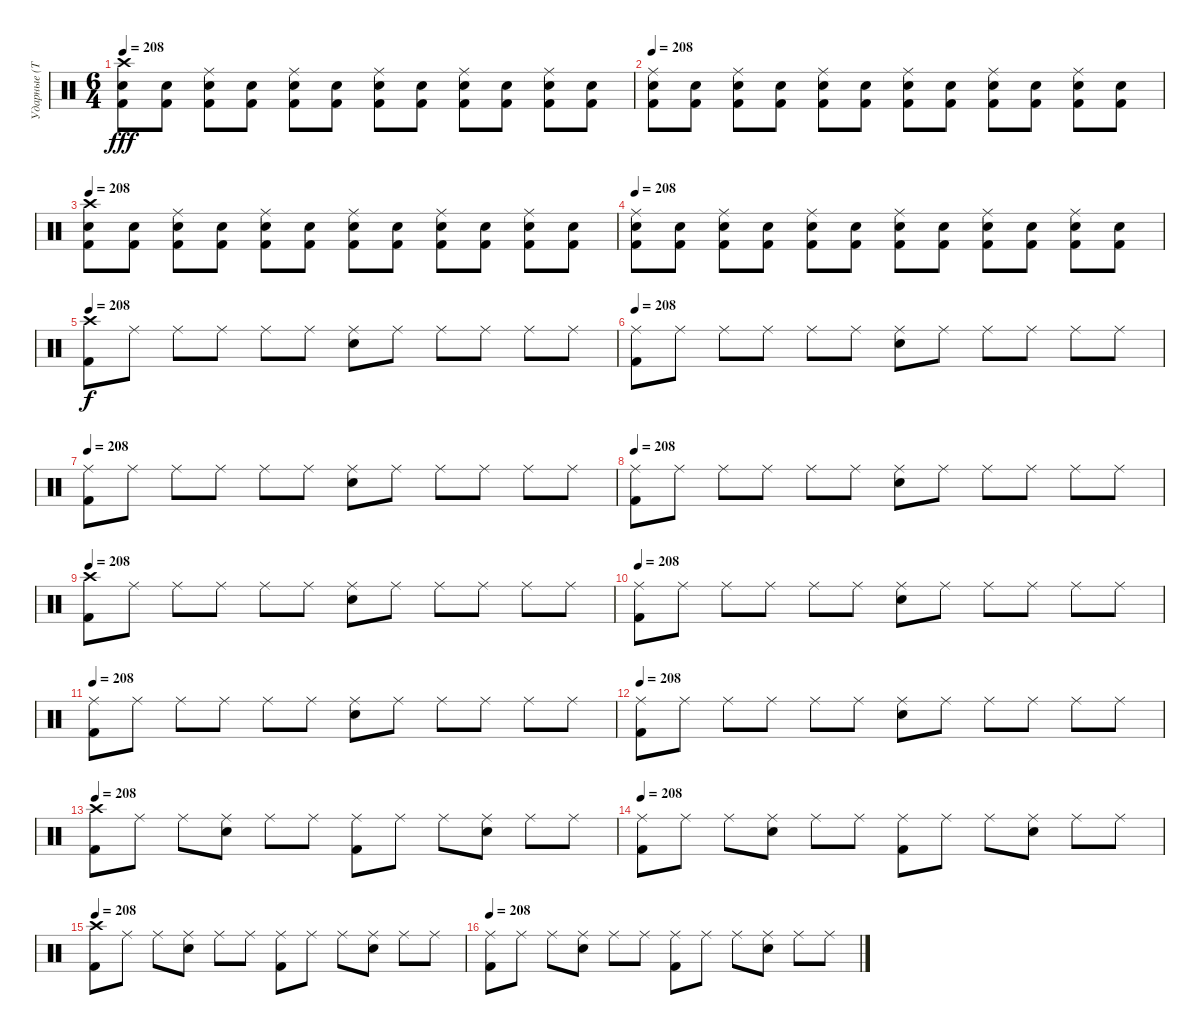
\track ("Ударные (Тьодальв)" "Ударные (Т") {instrument percussion}
\staff {score}
\articulation defaults
\ts (6 4)
\tempo 208
\clef neutral
\ks c
("Kick (hit) 2" "Snare (hit) 2" "Crash high (hit)").8{dy fff} ("Kick (hit) 2" "Snare (hit) 2").8 ("Kick (hit) 2" "Snare (hit) 2" "Ride (middle)").8 ("Kick (hit) 2" "Snare (hit) 2").8 ("Kick (hit) 2" "Snare (hit) 2" "Ride (middle)").8 ("Kick (hit) 2" "Snare (hit) 2").8 ("Kick (hit) 2" "Snare (hit) 2" "Ride (middle)").8 ("Kick (hit) 2" "Snare (hit) 2").8 ("Kick (hit) 2" "Snare (hit) 2" "Ride (middle)").8 ("Kick (hit) 2" "Snare (hit) 2").8 ("Kick (hit) 2" "Snare (hit) 2" "Ride (middle)").8 ("Kick (hit) 2" "Snare (hit) 2").8 |
\tempo 208
("Kick (hit) 2" "Snare (hit) 2" "Ride (middle)").8 ("Kick (hit) 2" "Snare (hit) 2").8 ("Kick (hit) 2" "Snare (hit) 2" "Ride (middle)").8 ("Kick (hit) 2" "Snare (hit) 2").8 ("Kick (hit) 2" "Snare (hit) 2" "Ride (middle)").8 ("Kick (hit) 2" "Snare (hit) 2").8 ("Kick (hit) 2" "Snare (hit) 2" "Ride (middle)").8 ("Kick (hit) 2" "Snare (hit) 2").8 ("Kick (hit) 2" "Snare (hit) 2" "Ride (middle)").8 ("Kick (hit) 2" "Snare (hit) 2").8 ("Kick (hit) 2" "Snare (hit) 2" "Ride (middle)").8 ("Kick (hit) 2" "Snare (hit) 2").8 |
\tempo 208
("Kick (hit) 2" "Snare (hit) 2" "Crash high (hit)").8 ("Kick (hit) 2" "Snare (hit) 2").8 ("Kick (hit) 2" "Snare (hit) 2" "Ride (middle)").8 ("Kick (hit) 2" "Snare (hit) 2").8 ("Kick (hit) 2" "Snare (hit) 2" "Ride (middle)").8 ("Kick (hit) 2" "Snare (hit) 2").8 ("Kick (hit) 2" "Snare (hit) 2" "Ride (middle)").8 ("Kick (hit) 2" "Snare (hit) 2").8 ("Kick (hit) 2" "Snare (hit) 2" "Ride (middle)").8 ("Kick (hit) 2" "Snare (hit) 2").8 ("Kick (hit) 2" "Snare (hit) 2" "Ride (middle)").8 ("Kick (hit) 2" "Snare (hit) 2").8 |
\tempo 208
("Kick (hit) 2" "Snare (hit) 2" "Ride (middle)").8 ("Kick (hit) 2" "Snare (hit) 2").8 ("Kick (hit) 2" "Snare (hit) 2" "Ride (middle)").8 ("Kick (hit) 2" "Snare (hit) 2").8 ("Kick (hit) 2" "Snare (hit) 2" "Ride (middle)").8 ("Kick (hit) 2" "Snare (hit) 2").8 ("Kick (hit) 2" "Snare (hit) 2" "Ride (middle)").8 ("Kick (hit) 2" "Snare (hit) 2").8 ("Kick (hit) 2" "Snare (hit) 2" "Ride (middle)").8 ("Kick (hit) 2" "Snare (hit) 2").8 ("Kick (hit) 2" "Snare (hit) 2" "Ride (middle)").8 ("Kick (hit) 2" "Snare (hit) 2").8 |
\tempo 208
("Kick (hit) 2" "Crash high (hit)").8{dy f} "Ride (middle)".8 "Ride (middle)".8 "Ride (middle)".8 "Ride (middle)".8 "Ride (middle)".8 ("Snare (hit) 2" "Ride (middle)").8 "Ride (middle)".8 "Ride (middle)".8 "Ride (middle)".8 "Ride (middle)".8 "Ride (middle)".8 |
\tempo 208
("Kick (hit) 2" "Ride (middle)").8 "Ride (middle)".8 "Ride (middle)".8 "Ride (middle)".8 "Ride (middle)".8 "Ride (middle)".8 ("Snare (hit) 2" "Ride (middle)").8 "Ride (middle)".8 "Ride (middle)".8 "Ride (middle)".8 "Ride (middle)".8 "Ride (middle)".8 |
\tempo 208
("Kick (hit) 2" "Ride (middle)").8 "Ride (middle)".8 "Ride (middle)".8 "Ride (middle)".8 "Ride (middle)".8 "Ride (middle)".8 ("Snare (hit) 2" "Ride (middle)").8 "Ride (middle)".8 "Ride (middle)".8 "Ride (middle)".8 "Ride (middle)".8 "Ride (middle)".8 |
\tempo 208
("Kick (hit) 2" "Ride (middle)").8 "Ride (middle)".8 "Ride (middle)".8 "Ride (middle)".8 "Ride (middle)".8 "Ride (middle)".8 ("Snare (hit) 2" "Ride (middle)").8 "Ride (middle)".8 "Ride (middle)".8 "Ride (middle)".8 "Ride (middle)".8 "Ride (middle)".8 |
\tempo 208
("Kick (hit) 2" "Crash high (hit)").8 "Ride (middle)".8 "Ride (middle)".8 "Ride (middle)".8 "Ride (middle)".8 "Ride (middle)".8 ("Snare (hit) 2" "Ride (middle)").8 "Ride (middle)".8 "Ride (middle)".8 "Ride (middle)".8 "Ride (middle)".8 "Ride (middle)".8 |
\tempo 208
("Kick (hit) 2" "Ride (middle)").8 "Ride (middle)".8 "Ride (middle)".8 "Ride (middle)".8 "Ride (middle)".8 "Ride (middle)".8 ("Snare (hit) 2" "Ride (middle)").8 "Ride (middle)".8 "Ride (middle)".8 "Ride (middle)".8 "Ride (middle)".8 "Ride (middle)".8 |
\tempo 208
("Kick (hit) 2" "Ride (middle)").8 "Ride (middle)".8 "Ride (middle)".8 "Ride (middle)".8 "Ride (middle)".8 "Ride (middle)".8 ("Snare (hit) 2" "Ride (middle)").8 "Ride (middle)".8 "Ride (middle)".8 "Ride (middle)".8 "Ride (middle)".8 "Ride (middle)".8 |
\tempo 208
("Kick (hit) 2" "Ride (middle)").8 "Ride (middle)".8 "Ride (middle)".8 "Ride (middle)".8 "Ride (middle)".8 "Ride (middle)".8 ("Snare (hit) 2" "Ride (middle)").8 "Ride (middle)".8 "Ride (middle)".8 "Ride (middle)".8 "Ride (middle)".8 "Ride (middle)".8 |
\tempo 208
("Kick (hit) 2" "Crash high (hit)").8 "Ride (middle)".8 "Ride (middle)".8 ("Snare (hit) 2" "Ride (middle)").8 "Ride (middle)".8 "Ride (middle)".8 ("Kick (hit) 2" "Ride (middle)").8 "Ride (middle)".8 "Ride (middle)".8 ("Snare (hit) 2" "Ride (middle)").8 "Ride (middle)".8 "Ride (middle)".8 |
\tempo 208
("Kick (hit) 2" "Ride (middle)").8 "Ride (middle)".8 "Ride (middle)".8 ("Snare (hit) 2" "Ride (middle)").8 "Ride (middle)".8 "Ride (middle)".8 ("Kick (hit) 2" "Ride (middle)").8 "Ride (middle)".8 "Ride (middle)".8 ("Snare (hit) 2" "Ride (middle)").8 "Ride (middle)".8 "Ride (middle)".8 |
\tempo 208
("Kick (hit) 2" "Crash high (hit)").8 "Ride (middle)".8 "Ride (middle)".8 ("Snare (hit) 2" "Ride (middle)").8 "Ride (middle)".8 "Ride (middle)".8 ("Kick (hit) 2" "Ride (middle)").8 "Ride (middle)".8 "Ride (middle)".8 ("Snare (hit) 2" "Ride (middle)").8 "Ride (middle)".8 "Ride (middle)".8 |
\tempo 208
("Kick (hit) 2" "Ride (middle)").8 "Ride (middle)".8 "Ride (middle)".8 ("Snare (hit) 2" "Ride (middle)").8 "Ride (middle)".8 "Ride (middle)".8 ("Kick (hit) 2" "Ride (middle)").8 "Ride (middle)".8 "Ride (middle)".8 ("Snare (hit) 2" "Ride (middle)").8 "Ride (middle)".8 "Ride (middle)".8
